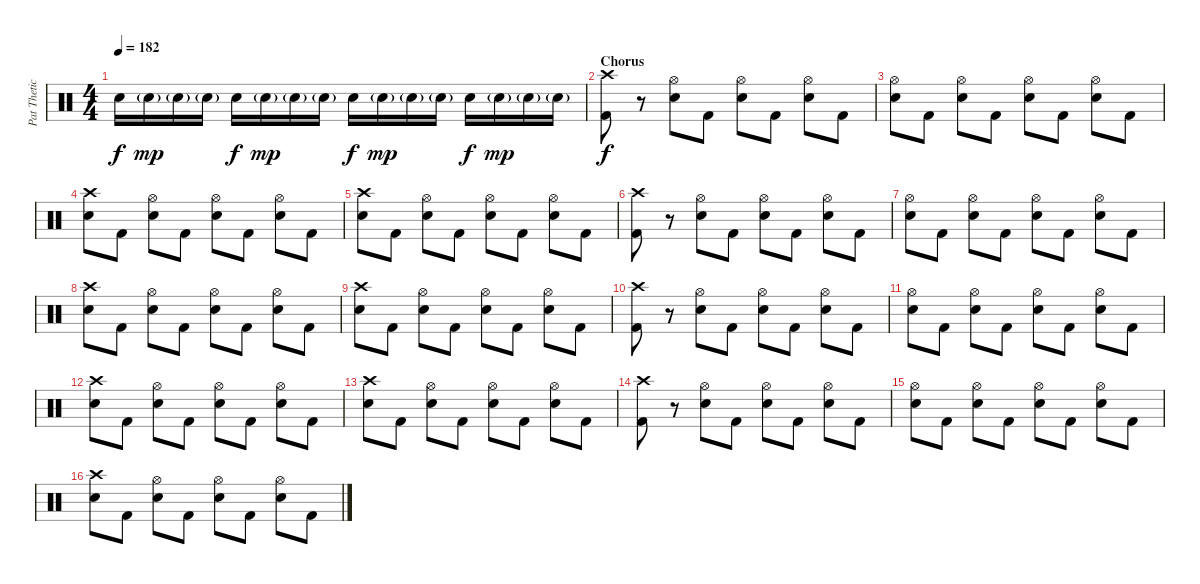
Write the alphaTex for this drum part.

\track ("Pat Thetic - Drums" "Pat Thetic") {instrument percussion}
\staff {score}
\articulation defaults
\ts (4 4)
\tempo 182
\clef neutral
\ks c "Electric Snare (hit)".16{dy f} "Snare (hit) 2"{g}.16{dy mp} "Snare (hit) 2"{g}.16 "Snare (hit) 2"{g}.16 "Electric Snare (hit)".16{dy f} "Snare (hit) 2"{g}.16{dy mp} "Snare (hit) 2"{g}.16 "Snare (hit) 2"{g}.16 "Electric Snare (hit)".16{dy f} "Snare (hit) 2"{g}.16{dy mp} "Snare (hit) 2"{g}.16 "Snare (hit) 2"{g}.16 "Electric Snare (hit)".16{dy f} "Snare (hit) 2"{g}.16{dy mp} "Snare (hit) 2"{g}.16 "Snare (hit) 2"{g}.16
|
\section ("" "Chorus")
("Crash high (hit)" "Kick (hit) 2").8{dy f} r.8 ("Hi-Hat (open)" "Electric Snare (hit)").8 "Kick (hit) 2".8 ("Hi-Hat (open)" "Electric Snare (hit)").8 "Kick (hit) 2".8 ("Hi-Hat (open)" "Electric Snare (hit)").8 "Kick (hit) 2".8 |
("Hi-Hat (open)" "Electric Snare (hit)").8 "Kick (hit) 2".8 ("Hi-Hat (open)" "Electric Snare (hit)").8 "Kick (hit) 2".8 ("Hi-Hat (open)" "Electric Snare (hit)").8 "Kick (hit) 2".8 ("Hi-Hat (open)" "Electric Snare (hit)").8 "Kick (hit) 2".8 |
("Crash high (hit)" "Electric Snare (hit)").8 "Kick (hit) 2".8 ("Hi-Hat (open)" "Electric Snare (hit)").8 "Kick (hit) 2".8 ("Hi-Hat (open)" "Electric Snare (hit)").8 "Kick (hit) 2".8 ("Hi-Hat (open)" "Electric Snare (hit)").8 "Kick (hit) 2".8 |
("Crash high (hit)" "Electric Snare (hit)").8 "Kick (hit) 2".8 ("Hi-Hat (open)" "Electric Snare (hit)").8 "Kick (hit) 2".8 ("Hi-Hat (open)" "Electric Snare (hit)").8 "Kick (hit) 2".8 ("Hi-Hat (open)" "Electric Snare (hit)").8 "Kick (hit) 2".8 |
("Crash high (hit)" "Kick (hit) 2").8 r.8 ("Hi-Hat (open)" "Electric Snare (hit)").8 "Kick (hit) 2".8 ("Hi-Hat (open)" "Electric Snare (hit)").8 "Kick (hit) 2".8 ("Hi-Hat (open)" "Electric Snare (hit)").8 "Kick (hit) 2".8 |
("Hi-Hat (open)" "Electric Snare (hit)").8 "Kick (hit) 2".8 ("Hi-Hat (open)" "Electric Snare (hit)").8 "Kick (hit) 2".8 ("Hi-Hat (open)" "Electric Snare (hit)").8 "Kick (hit) 2".8 ("Hi-Hat (open)" "Electric Snare (hit)").8 "Kick (hit) 2".8 |
("Crash high (hit)" "Electric Snare (hit)").8 "Kick (hit) 2".8 ("Hi-Hat (open)" "Electric Snare (hit)").8 "Kick (hit) 2".8 ("Hi-Hat (open)" "Electric Snare (hit)").8 "Kick (hit) 2".8 ("Hi-Hat (open)" "Electric Snare (hit)").8 "Kick (hit) 2".8 |
("Crash high (hit)" "Electric Snare (hit)").8 "Kick (hit) 2".8 ("Hi-Hat (open)" "Electric Snare (hit)").8 "Kick (hit) 2".8 ("Hi-Hat (open)" "Electric Snare (hit)").8 "Kick (hit) 2".8 ("Hi-Hat (open)" "Electric Snare (hit)").8 "Kick (hit) 2".8 |
("Crash high (hit)" "Kick (hit) 2").8 r.8 ("Hi-Hat (open)" "Electric Snare (hit)").8 "Kick (hit) 2".8 ("Hi-Hat (open)" "Electric Snare (hit)").8 "Kick (hit) 2".8 ("Hi-Hat (open)" "Electric Snare (hit)").8 "Kick (hit) 2".8 |
("Hi-Hat (open)" "Electric Snare (hit)").8 "Kick (hit) 2".8 ("Hi-Hat (open)" "Electric Snare (hit)").8 "Kick (hit) 2".8 ("Hi-Hat (open)" "Electric Snare (hit)").8 "Kick (hit) 2".8 ("Hi-Hat (open)" "Electric Snare (hit)").8 "Kick (hit) 2".8 |
("Crash high (hit)" "Electric Snare (hit)").8 "Kick (hit) 2".8 ("Hi-Hat (open)" "Electric Snare (hit)").8 "Kick (hit) 2".8 ("Hi-Hat (open)" "Electric Snare (hit)").8 "Kick (hit) 2".8 ("Hi-Hat (open)" "Electric Snare (hit)").8 "Kick (hit) 2".8 |
("Crash high (hit)" "Electric Snare (hit)").8 "Kick (hit) 2".8 ("Hi-Hat (open)" "Electric Snare (hit)").8 "Kick (hit) 2".8 ("Hi-Hat (open)" "Electric Snare (hit)").8 "Kick (hit) 2".8 ("Hi-Hat (open)" "Electric Snare (hit)").8 "Kick (hit) 2".8 |
("Crash high (hit)" "Kick (hit) 2").8 r.8 ("Hi-Hat (open)" "Electric Snare (hit)").8 "Kick (hit) 2".8 ("Hi-Hat (open)" "Electric Snare (hit)").8 "Kick (hit) 2".8 ("Hi-Hat (open)" "Electric Snare (hit)").8 "Kick (hit) 2".8 |
("Hi-Hat (open)" "Electric Snare (hit)").8 "Kick (hit) 2".8 ("Hi-Hat (open)" "Electric Snare (hit)").8 "Kick (hit) 2".8 ("Hi-Hat (open)" "Electric Snare (hit)").8 "Kick (hit) 2".8 ("Hi-Hat (open)" "Electric Snare (hit)").8 "Kick (hit) 2".8 |
("Crash high (hit)" "Electric Snare (hit)").8 "Kick (hit) 2".8 ("Hi-Hat (open)" "Electric Snare (hit)").8 "Kick (hit) 2".8 ("Hi-Hat (open)" "Electric Snare (hit)").8 "Kick (hit) 2".8 ("Hi-Hat (open)" "Electric Snare (hit)").8 "Kick (hit) 2".8
